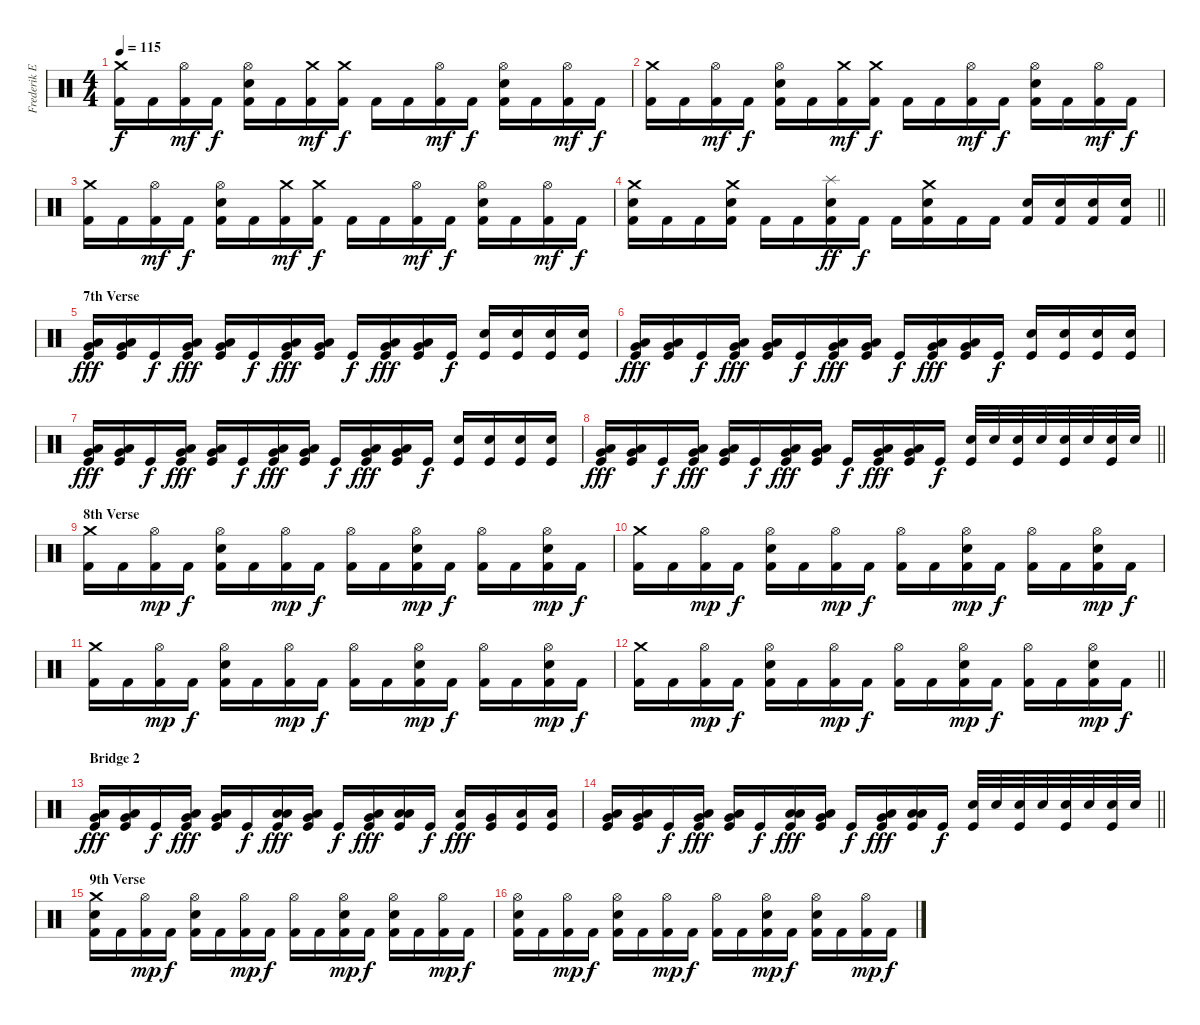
\track ("Frederik Ehmke" "Frederik E") {instrument percussion}
\staff {score}
\articulation defaults
\ts (4 4)
\tempo 115
\clef neutral
\ks c
("Crash medium (hit)" "Kick (hit) 2").16{dy f} "Kick (hit) 2".16 ("Hi-Hat (open)" "Kick (hit) 2").16{dy mf} "Kick (hit) 2".16{dy f} ("Hi-Hat (open)" "Electric Snare (hit)" "Kick (hit) 2").16 "Kick (hit) 2".16 ("Crash medium (hit)" "Kick (hit) 2").16{dy mf} ("Crash medium (hit)" "Kick (hit) 2").16{dy f} "Kick (hit) 2".16 "Kick (hit) 2".16 ("Hi-Hat (open)" "Kick (hit) 2").16{dy mf} "Kick (hit) 2".16{dy f} ("Hi-Hat (open)" "Electric Snare (hit)" "Kick (hit) 2").16 "Kick (hit) 2".16 ("Hi-Hat (open)" "Kick (hit) 2").16{dy mf} "Kick (hit) 2".16{dy f} |
("Crash medium (hit)" "Kick (hit) 2").16 "Kick (hit) 2".16 ("Hi-Hat (open)" "Kick (hit) 2").16{dy mf} "Kick (hit) 2".16{dy f} ("Hi-Hat (open)" "Electric Snare (hit)" "Kick (hit) 2").16 "Kick (hit) 2".16 ("Crash medium (hit)" "Kick (hit) 2").16{dy mf} ("Crash medium (hit)" "Kick (hit) 2").16{dy f} "Kick (hit) 2".16 "Kick (hit) 2".16 ("Hi-Hat (open)" "Kick (hit) 2").16{dy mf} "Kick (hit) 2".16{dy f} ("Hi-Hat (open)" "Electric Snare (hit)" "Kick (hit) 2").16 "Kick (hit) 2".16 ("Hi-Hat (open)" "Kick (hit) 2").16{dy mf} "Kick (hit) 2".16{dy f} |
("Crash medium (hit)" "Kick (hit) 2").16 "Kick (hit) 2".16 ("Hi-Hat (open)" "Kick (hit) 2").16{dy mf} "Kick (hit) 2".16{dy f} ("Hi-Hat (open)" "Electric Snare (hit)" "Kick (hit) 2").16 "Kick (hit) 2".16 ("Crash medium (hit)" "Kick (hit) 2").16{dy mf} ("Crash medium (hit)" "Kick (hit) 2").16{dy f} "Kick (hit) 2".16 "Kick (hit) 2".16 ("Hi-Hat (open)" "Kick (hit) 2").16{dy mf} "Kick (hit) 2".16{dy f} ("Hi-Hat (open)" "Electric Snare (hit)" "Kick (hit) 2").16 "Kick (hit) 2".16 ("Hi-Hat (open)" "Kick (hit) 2").16{dy mf} "Kick (hit) 2".16{dy f} |
\barLineRight lightlight
("Crash medium (hit)" "Electric Snare (hit)" "Kick (hit) 2").16 "Kick (hit) 2".16 "Kick (hit) 2".16 ("Crash medium (hit)" "Electric Snare (hit)" "Kick (hit) 2").16 "Kick (hit) 2".16 "Kick (hit) 2".16 ("Splash (hit)" "Electric Snare (hit)" "Kick (hit) 2").16{dy ff} "Kick (hit) 2".16{dy f} "Kick (hit) 2".16 ("Crash medium (hit)" "Electric Snare (hit)" "Kick (hit) 2").16 "Kick (hit) 2".16 "Kick (hit) 2".16 ("Electric Snare (hit)" "Kick (hit) 2").16 ("Electric Snare (hit)" "Kick (hit) 2").16 ("Electric Snare (hit)" "Kick (hit) 2").16 ("Electric Snare (hit)" "Kick (hit) 2").16 |
\section ("" "7th Verse")
("Very Low Tom (hit)" "Low Floor Tom (hit)" "Kick (hit)").16{dy fff} ("Very Low Tom (hit)" "Low Floor Tom (hit)" "Kick (hit)").16 "Kick (hit)".16{dy f} ("Very Low Tom (hit)" "Low Floor Tom (hit)" "Kick (hit)").16{dy fff} ("Very Low Tom (hit)" "Low Floor Tom (hit)" "Kick (hit)").16 "Kick (hit)".16{dy f} ("Very Low Tom (hit)" "Low Floor Tom (hit)" "Kick (hit)").16{dy fff} ("Very Low Tom (hit)" "Low Floor Tom (hit)" "Kick (hit)").16 "Kick (hit)".16{dy f} ("Very Low Tom (hit)" "Low Floor Tom (hit)" "Kick (hit)").16{dy fff} ("Very Low Tom (hit)" "Low Floor Tom (hit)" "Kick (hit)").16 "Kick (hit)".16{dy f} ("Electric Snare (hit)" "Kick (hit)").16 ("Electric Snare (hit)" "Kick (hit)").16 ("Electric Snare (hit)" "Kick (hit)").16 ("Electric Snare (hit)" "Kick (hit)").16 |
("Very Low Tom (hit)" "Low Floor Tom (hit)" "Kick (hit)").16{dy fff} ("Very Low Tom (hit)" "Low Floor Tom (hit)" "Kick (hit)").16 "Kick (hit)".16{dy f} ("Very Low Tom (hit)" "Low Floor Tom (hit)" "Kick (hit)").16{dy fff} ("Very Low Tom (hit)" "Low Floor Tom (hit)" "Kick (hit)").16 "Kick (hit)".16{dy f} ("Very Low Tom (hit)" "Low Floor Tom (hit)" "Kick (hit)").16{dy fff} ("Very Low Tom (hit)" "Low Floor Tom (hit)" "Kick (hit)").16 "Kick (hit)".16{dy f} ("Very Low Tom (hit)" "Low Floor Tom (hit)" "Kick (hit)").16{dy fff} ("Very Low Tom (hit)" "Low Floor Tom (hit)" "Kick (hit)").16 "Kick (hit)".16{dy f} ("Electric Snare (hit)" "Kick (hit)").16 ("Electric Snare (hit)" "Kick (hit)").16 ("Electric Snare (hit)" "Kick (hit)").16 ("Electric Snare (hit)" "Kick (hit)").16 |
("Very Low Tom (hit)" "Low Floor Tom (hit)" "Kick (hit)").16{dy fff} ("Very Low Tom (hit)" "Low Floor Tom (hit)" "Kick (hit)").16 "Kick (hit)".16{dy f} ("Very Low Tom (hit)" "Low Floor Tom (hit)" "Kick (hit)").16{dy fff} ("Very Low Tom (hit)" "Low Floor Tom (hit)" "Kick (hit)").16 "Kick (hit)".16{dy f} ("Very Low Tom (hit)" "Low Floor Tom (hit)" "Kick (hit)").16{dy fff} ("Very Low Tom (hit)" "Low Floor Tom (hit)" "Kick (hit)").16 "Kick (hit)".16{dy f} ("Very Low Tom (hit)" "Low Floor Tom (hit)" "Kick (hit)").16{dy fff} ("Very Low Tom (hit)" "Low Floor Tom (hit)" "Kick (hit)").16 "Kick (hit)".16{dy f} ("Electric Snare (hit)" "Kick (hit)").16 ("Electric Snare (hit)" "Kick (hit)").16 ("Electric Snare (hit)" "Kick (hit)").16 ("Electric Snare (hit)" "Kick (hit)").16 |
\barLineRight lightlight
("Very Low Tom (hit)" "Low Floor Tom (hit)" "Kick (hit)").16{dy fff} ("Very Low Tom (hit)" "Low Floor Tom (hit)" "Kick (hit)").16 "Kick (hit)".16{dy f} ("Very Low Tom (hit)" "Low Floor Tom (hit)" "Kick (hit)").16{dy fff} ("Very Low Tom (hit)" "Low Floor Tom (hit)" "Kick (hit)").16 "Kick (hit)".16{dy f} ("Very Low Tom (hit)" "Low Floor Tom (hit)" "Kick (hit)").16{dy fff} ("Very Low Tom (hit)" "Low Floor Tom (hit)" "Kick (hit)").16 "Kick (hit)".16{dy f} ("Very Low Tom (hit)" "Low Floor Tom (hit)" "Kick (hit)").16{dy fff} ("Very Low Tom (hit)" "Low Floor Tom (hit)" "Kick (hit)").16 "Kick (hit)".16{dy f} ("Electric Snare (hit)" "Kick (hit)").32 "Electric Snare (hit)".32 ("Electric Snare (hit)" "Kick (hit)").32 "Electric Snare (hit)".32 ("Electric Snare (hit)" "Kick (hit)").32 "Electric Snare (hit)".32 ("Electric Snare (hit)" "Kick (hit)").32 "Electric Snare (hit)".32 |
\section ("" "8th Verse")
("Crash medium (hit)" "Kick (hit) 2").16 "Kick (hit) 2".16 ("Hi-Hat (open)" "Kick (hit) 2").16{dy mp} "Kick (hit) 2".16{dy f} ("Hi-Hat (open)" "Electric Snare (hit)" "Kick (hit) 2").16 "Kick (hit) 2".16 ("Hi-Hat (open)" "Kick (hit) 2").16{dy mp} "Kick (hit) 2".16{dy f} ("Hi-Hat (open)" "Kick (hit) 2").16 "Kick (hit) 2".16 ("Hi-Hat (open)" "Electric Snare (hit)" "Kick (hit) 2").16{dy mp} "Kick (hit) 2".16{dy f} ("Hi-Hat (open)" "Kick (hit) 2").16 "Kick (hit) 2".16 ("Hi-Hat (open)" "Electric Snare (hit)" "Kick (hit) 2").16{dy mp} "Kick (hit) 2".16{dy f} |
("Crash medium (hit)" "Kick (hit) 2").16 "Kick (hit) 2".16 ("Hi-Hat (open)" "Kick (hit) 2").16{dy mp} "Kick (hit) 2".16{dy f} ("Hi-Hat (open)" "Electric Snare (hit)" "Kick (hit) 2").16 "Kick (hit) 2".16 ("Hi-Hat (open)" "Kick (hit) 2").16{dy mp} "Kick (hit) 2".16{dy f} ("Hi-Hat (open)" "Kick (hit) 2").16 "Kick (hit) 2".16 ("Hi-Hat (open)" "Electric Snare (hit)" "Kick (hit) 2").16{dy mp} "Kick (hit) 2".16{dy f} ("Hi-Hat (open)" "Kick (hit) 2").16 "Kick (hit) 2".16 ("Hi-Hat (open)" "Electric Snare (hit)" "Kick (hit) 2").16{dy mp} "Kick (hit) 2".16{dy f} |
("Crash medium (hit)" "Kick (hit) 2").16 "Kick (hit) 2".16 ("Hi-Hat (open)" "Kick (hit) 2").16{dy mp} "Kick (hit) 2".16{dy f} ("Hi-Hat (open)" "Electric Snare (hit)" "Kick (hit) 2").16 "Kick (hit) 2".16 ("Hi-Hat (open)" "Kick (hit) 2").16{dy mp} "Kick (hit) 2".16{dy f} ("Hi-Hat (open)" "Kick (hit) 2").16 "Kick (hit) 2".16 ("Hi-Hat (open)" "Electric Snare (hit)" "Kick (hit) 2").16{dy mp} "Kick (hit) 2".16{dy f} ("Hi-Hat (open)" "Kick (hit) 2").16 "Kick (hit) 2".16 ("Hi-Hat (open)" "Electric Snare (hit)" "Kick (hit) 2").16{dy mp} "Kick (hit) 2".16{dy f} |
\barLineRight lightlight
("Crash medium (hit)" "Kick (hit) 2").16 "Kick (hit) 2".16 ("Hi-Hat (open)" "Kick (hit) 2").16{dy mp} "Kick (hit) 2".16{dy f} ("Hi-Hat (open)" "Electric Snare (hit)" "Kick (hit) 2").16 "Kick (hit) 2".16 ("Hi-Hat (open)" "Kick (hit) 2").16{dy mp} "Kick (hit) 2".16{dy f} ("Hi-Hat (open)" "Kick (hit) 2").16 "Kick (hit) 2".16 ("Hi-Hat (open)" "Electric Snare (hit)" "Kick (hit) 2").16{dy mp} "Kick (hit) 2".16{dy f} ("Hi-Hat (open)" "Kick (hit) 2").16 "Kick (hit) 2".16 ("Hi-Hat (open)" "Electric Snare (hit)" "Kick (hit) 2").16{dy mp} "Kick (hit) 2".16{dy f} |
\section ("" "Bridge 2")
("Very Low Tom (hit)" "Low Floor Tom (hit)" "Kick (hit)").16{dy fff} ("Very Low Tom (hit)" "Low Floor Tom (hit)" "Kick (hit)").16 "Kick (hit)".16{dy f} ("Very Low Tom (hit)" "Low Floor Tom (hit)" "Kick (hit)").16{dy fff} ("Very Low Tom (hit)" "Low Floor Tom (hit)" "Kick (hit)").16 "Kick (hit)".16{dy f} ("Low Tom (hit)" "Low Floor Tom (hit)" "Kick (hit)").16{dy fff} ("Very Low Tom (hit)" "Low Floor Tom (hit)" "Kick (hit)").16 "Kick (hit)".16{dy f} ("Very Low Tom (hit)" "Low Floor Tom (hit)" "Kick (hit)").16{dy fff} ("Low Floor Tom (hit)" "Low Floor Tom (hit)" "Kick (hit)").16 "Kick (hit)".16{dy f} ("Low Floor Tom (hit)" "Kick (hit)").16{dy fff} ("Very Low Tom (hit)" "Kick (hit)").16 ("Low Tom (hit)" "Kick (hit)").16 ("Low Floor Tom (hit)" "Kick (hit)").16 |
\barLineRight lightlight
("Very Low Tom (hit)" "Low Floor Tom (hit)" "Kick (hit)").16 ("Very Low Tom (hit)" "Low Floor Tom (hit)" "Kick (hit)").16 "Kick (hit)".16{dy f} ("Very Low Tom (hit)" "Low Floor Tom (hit)" "Kick (hit)").16{dy fff} ("Very Low Tom (hit)" "Low Floor Tom (hit)" "Kick (hit)").16 "Kick (hit)".16{dy f} ("Low Tom (hit)" "Low Floor Tom (hit)" "Kick (hit)").16{dy fff} ("Very Low Tom (hit)" "Low Floor Tom (hit)" "Kick (hit)").16 "Kick (hit)".16{dy f} ("Very Low Tom (hit)" "Low Floor Tom (hit)" "Kick (hit)").16{dy fff} ("Low Floor Tom (hit)" "Low Floor Tom (hit)" "Kick (hit)").16 "Kick (hit)".16{dy f} ("Electric Snare (hit)" "Kick (hit)").32 "Electric Snare (hit)".32 ("Electric Snare (hit)" "Kick (hit)").32 "Electric Snare (hit)".32 ("Electric Snare (hit)" "Kick (hit)").32 "Electric Snare (hit)".32 ("Electric Snare (hit)" "Kick (hit)").32 "Electric Snare (hit)".32 |
\section ("" "9th Verse")
("Crash medium (hit)" "Electric Snare (hit)" "Kick (hit) 2").16 "Kick (hit) 2".16 ("Hi-Hat (open)" "Kick (hit) 2").16{dy mp} "Kick (hit) 2".16{dy f} ("Hi-Hat (open)" "Electric Snare (hit)" "Kick (hit) 2").16 "Kick (hit) 2".16 ("Hi-Hat (open)" "Kick (hit) 2").16{dy mp} "Kick (hit) 2".16{dy f} ("Hi-Hat (open)" "Kick (hit) 2").16 "Kick (hit) 2".16 ("Hi-Hat (open)" "Electric Snare (hit)" "Kick (hit) 2").16{dy mp} "Kick (hit) 2".16{dy f} ("Hi-Hat (open)" "Electric Snare (hit)" "Kick (hit) 2").16 "Kick (hit) 2".16 ("Hi-Hat (open)" "Kick (hit) 2").16{dy mp} "Kick (hit) 2".16{dy f} |
("Hi-Hat (open)" "Electric Snare (hit)" "Kick (hit) 2").16 "Kick (hit) 2".16 ("Hi-Hat (open)" "Kick (hit) 2").16{dy mp} "Kick (hit) 2".16{dy f} ("Hi-Hat (open)" "Electric Snare (hit)" "Kick (hit) 2").16 "Kick (hit) 2".16 ("Hi-Hat (open)" "Kick (hit) 2").16{dy mp} "Kick (hit) 2".16{dy f} ("Hi-Hat (open)" "Kick (hit) 2").16 "Kick (hit) 2".16 ("Hi-Hat (open)" "Electric Snare (hit)" "Kick (hit) 2").16{dy mp} "Kick (hit) 2".16{dy f} ("Hi-Hat (open)" "Electric Snare (hit)" "Kick (hit) 2").16 "Kick (hit) 2".16 ("Hi-Hat (open)" "Kick (hit) 2").16{dy mp} "Kick (hit) 2".16{dy f}
